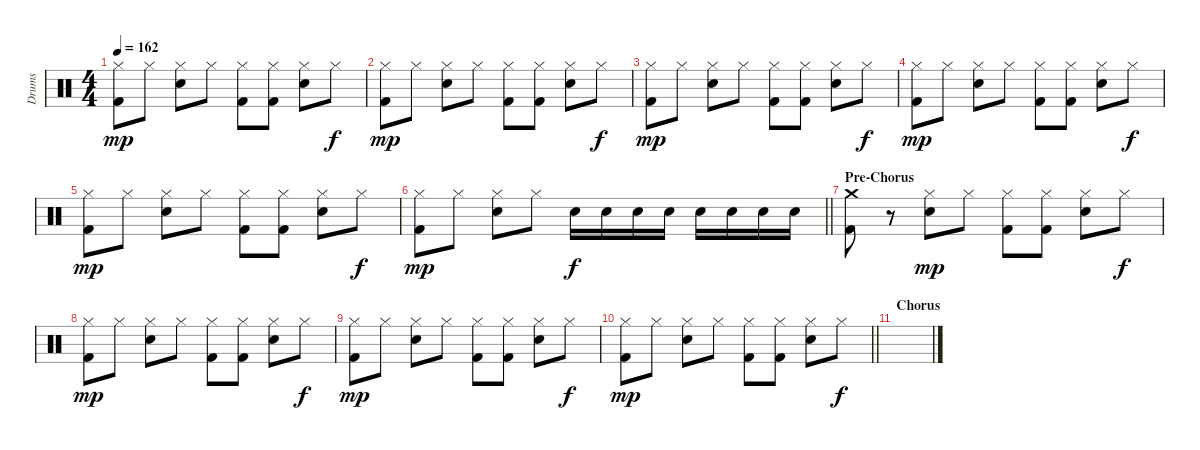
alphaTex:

\track ("Drums" "Drums") {instrument percussion}
\staff {score}
\articulation defaults
\ts (4 4)
\tempo 162
\clef neutral
\ks c
("Hi-Hat (closed)" "Kick (hit) 2").8{dy mp} "Hi-Hat (closed)".8 ("Hi-Hat (closed)" "Snare (hit) 2").8 "Hi-Hat (closed)".8 ("Hi-Hat (closed)" "Kick (hit) 2").8 ("Hi-Hat (closed)" "Kick (hit) 2").8 ("Hi-Hat (closed)" "Snare (hit) 2").8 "Hi-Hat (closed)".8{dy f} |
("Hi-Hat (closed)" "Kick (hit) 2").8{dy mp} "Hi-Hat (closed)".8 ("Hi-Hat (closed)" "Snare (hit) 2").8 "Hi-Hat (closed)".8 ("Hi-Hat (closed)" "Kick (hit) 2").8 ("Hi-Hat (closed)" "Kick (hit) 2").8 ("Hi-Hat (closed)" "Snare (hit) 2").8 "Hi-Hat (closed)".8{dy f} |
("Hi-Hat (closed)" "Kick (hit) 2").8{dy mp} "Hi-Hat (closed)".8 ("Hi-Hat (closed)" "Snare (hit) 2").8 "Hi-Hat (closed)".8 ("Hi-Hat (closed)" "Kick (hit) 2").8 ("Hi-Hat (closed)" "Kick (hit) 2").8 ("Hi-Hat (closed)" "Snare (hit) 2").8 "Hi-Hat (closed)".8{dy f} |
("Hi-Hat (closed)" "Kick (hit) 2").8{dy mp} "Hi-Hat (closed)".8 ("Hi-Hat (closed)" "Snare (hit) 2").8 "Hi-Hat (closed)".8 ("Hi-Hat (closed)" "Kick (hit) 2").8 ("Hi-Hat (closed)" "Kick (hit) 2").8 ("Hi-Hat (closed)" "Snare (hit) 2").8 "Hi-Hat (closed)".8{dy f} |
("Hi-Hat (closed)" "Kick (hit) 2").8{dy mp} "Hi-Hat (closed)".8 ("Hi-Hat (closed)" "Snare (hit) 2").8 "Hi-Hat (closed)".8 ("Hi-Hat (closed)" "Kick (hit) 2").8 ("Hi-Hat (closed)" "Kick (hit) 2").8 ("Hi-Hat (closed)" "Snare (hit) 2").8 "Hi-Hat (closed)".8{dy f} |
\barLineRight lightlight
("Hi-Hat (closed)" "Kick (hit) 2").8{dy mp} "Hi-Hat (closed)".8 ("Hi-Hat (closed)" "Snare (hit) 2").8 "Hi-Hat (closed)".8 "Snare (hit) 2".16{dy f} "Snare (hit) 2".16 "Snare (hit) 2".16 "Snare (hit) 2".16 "Snare (hit) 2".16 "Snare (hit) 2".16 "Snare (hit) 2".16 "Snare (hit) 2".16 |
\section ("" "Pre-Chorus")
("Crash medium (hit)" "Kick (hit) 2").8 r.8 ("Hi-Hat (closed)" "Snare (hit) 2").8{dy mp} "Hi-Hat (closed)".8 ("Hi-Hat (closed)" "Kick (hit) 2").8 ("Hi-Hat (closed)" "Kick (hit) 2").8 ("Hi-Hat (closed)" "Snare (hit) 2").8 "Hi-Hat (closed)".8{dy f} |
("Hi-Hat (closed)" "Kick (hit) 2").8{dy mp} "Hi-Hat (closed)".8 ("Hi-Hat (closed)" "Snare (hit) 2").8 "Hi-Hat (closed)".8 ("Hi-Hat (closed)" "Kick (hit) 2").8 ("Hi-Hat (closed)" "Kick (hit) 2").8 ("Hi-Hat (closed)" "Snare (hit) 2").8 "Hi-Hat (closed)".8{dy f} |
("Hi-Hat (closed)" "Kick (hit) 2").8{dy mp} "Hi-Hat (closed)".8 ("Hi-Hat (closed)" "Snare (hit) 2").8 "Hi-Hat (closed)".8 ("Hi-Hat (closed)" "Kick (hit) 2").8 ("Hi-Hat (closed)" "Kick (hit) 2").8 ("Hi-Hat (closed)" "Snare (hit) 2").8 "Hi-Hat (closed)".8{dy f} |
\barLineRight lightlight
("Hi-Hat (closed)" "Kick (hit) 2").8{dy mp} "Hi-Hat (closed)".8 ("Hi-Hat (closed)" "Snare (hit) 2").8 "Hi-Hat (closed)".8 ("Hi-Hat (closed)" "Kick (hit) 2").8 ("Hi-Hat (closed)" "Kick (hit) 2").8 ("Hi-Hat (closed)" "Snare (hit) 2").8 "Hi-Hat (closed)".8{dy f} |
\section ("" "Chorus")
